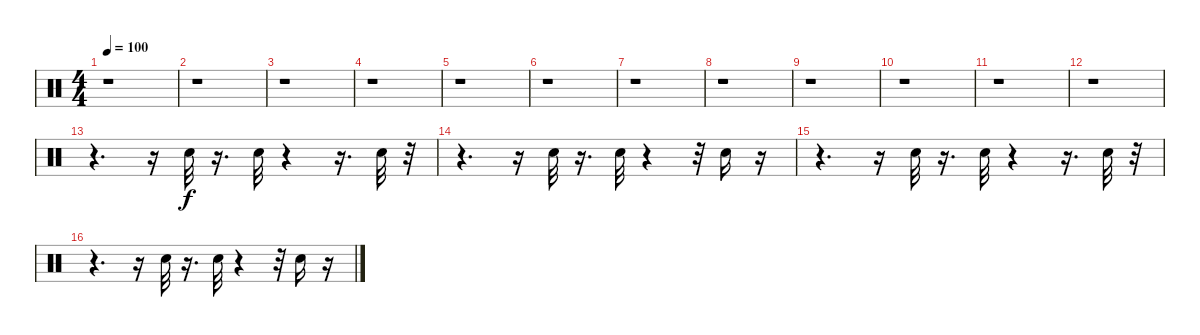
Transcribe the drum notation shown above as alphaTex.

\track "" {instrument percussion}
\staff {score}
\articulation defaults
\ts (4 4)
\tempo 100
\clef neutral
\ks c
r.1{dy f} |
r.1 |
r.1 |
r.1 |
r.1 |
r.1 |
r.1 |
r.1 |
r.1 |
r.1 |
r.1 |
r.1 |
r.4{d} r.16 "Snare (hit)".32 r.16{d} "Snare (hit)".32 r.4 r.16{d} "Snare (hit)".32 r.32 |
r.4{d} r.16 "Snare (hit)".32 r.16{d} "Snare (hit)".32 r.4 r.32 "Snare (hit)".16 r.16 |
r.4{d} r.16 "Snare (hit)".32 r.16{d} "Snare (hit)".32 r.4 r.16{d} "Snare (hit)".32 r.32 |
r.4{d} r.16 "Snare (hit)".32 r.16{d} "Snare (hit)".32 r.4 r.32 "Snare (hit)".16 r.16
